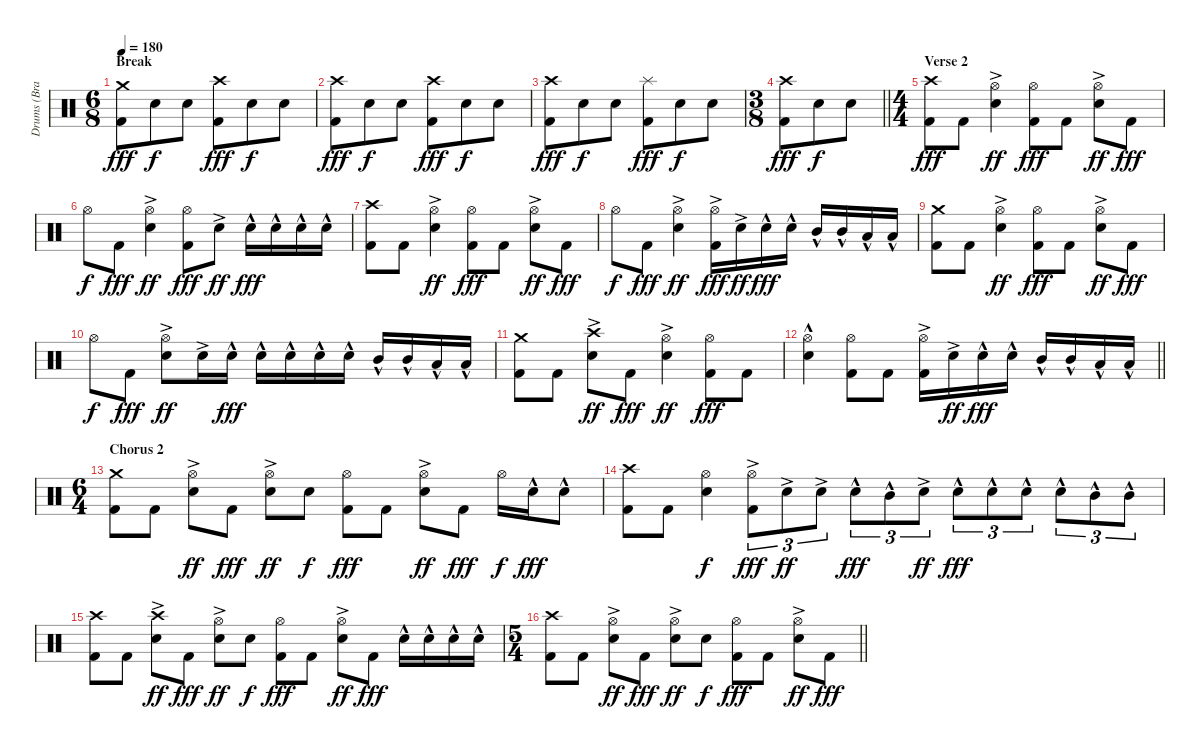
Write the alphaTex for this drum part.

\track ("Drums (Brann Dailor)" "Drums (Bra") {instrument percussion}
\staff {score}
\articulation defaults
\ts (6 8)
\section ("" "Break")
\tempo 180
\clef neutral
\ks c
("Crash medium (hit)" "Kick (hit) 2").8{dy fff} "Electric Snare (hit)".8{dy f} "Electric Snare (hit)".8 ("Crash high (hit)" "Kick (hit) 2").8{dy fff} "Electric Snare (hit)".8{dy f} "Electric Snare (hit)".8 |
("Crash high (hit)" "Kick (hit) 2").8{dy fff} "Electric Snare (hit)".8{dy f} "Electric Snare (hit)".8 ("Crash high (hit)" "Kick (hit) 2").8{dy fff} "Electric Snare (hit)".8{dy f} "Electric Snare (hit)".8 |
("Crash high (hit)" "Kick (hit) 2").8{dy fff} "Electric Snare (hit)".8{dy f} "Electric Snare (hit)".8 ("Splash (hit)" "Kick (hit) 2").8{dy fff} "Electric Snare (hit)".8{dy f} "Electric Snare (hit)".8 |
\ts (3 8)
\barLineRight lightlight
("Crash high (hit)" "Kick (hit) 2").8{dy fff} "Electric Snare (hit)".8{dy f} "Electric Snare (hit)".8 |
\ts (4 4)
\section ("" "Verse 2")
("Crash high (hit)" "Kick (hit) 2").8{dy fff} "Kick (hit) 2".8 ("Hi-Hat (open)" "Electric Snare (hit)"{ac}).4{dy ff} ("Hi-Hat (open)" "Kick (hit) 2").8{dy fff} "Kick (hit) 2".8 ("Hi-Hat (open)" "Electric Snare (hit)"{ac}).8{dy ff} "Kick (hit) 2".8{dy fff} |
"Hi-Hat (open)".8{dy f} "Kick (hit) 2".8{dy fff} ("Hi-Hat (open)" "Electric Snare (hit)"{ac}).4{dy ff} ("Hi-Hat (open)" "Kick (hit) 2").8{dy fff} "Electric Snare (hit)"{ac}.8{dy ff} "Electric Snare (hit)"{hac}.16{dy fff} "Electric Snare (hit)"{hac}.16 "Electric Snare (hit)"{hac}.16 "Electric Snare (hit)"{hac}.16 |
("Crash high (hit)" "Kick (hit) 2").8 "Kick (hit) 2".8 ("Hi-Hat (open)" "Electric Snare (hit)"{ac}).4{dy ff} ("Hi-Hat (open)" "Kick (hit) 2").8{dy fff} "Kick (hit) 2".8 ("Hi-Hat (open)" "Electric Snare (hit)"{ac}).8{dy ff} "Kick (hit) 2".8{dy fff} |
"Hi-Hat (open)".8{dy f} "Kick (hit) 2".8{dy fff} ("Hi-Hat (open)"{ac} "Electric Snare (hit)"{ac}).4{dy ff} ("Hi-Hat (open)"{ac} "Kick (hit) 2").16{dy fff} "Electric Snare (hit)"{ac}.16{dy ff} "Electric Snare (hit)"{hac}.16{dy fff} "Electric Snare (hit)"{hac}.16 "Mid Tom (hit)"{hac}.16 "Mid Tom (hit)"{hac}.16 "Low Tom (hit)"{hac}.16 "Low Tom (hit)"{hac}.16 |
("Crash medium (hit)" "Kick (hit) 2").8 "Kick (hit) 2".8 ("Hi-Hat (open)" "Electric Snare (hit)"{ac}).4{dy ff} ("Hi-Hat (open)" "Kick (hit) 2").8{dy fff} "Kick (hit) 2".8 ("Hi-Hat (open)" "Electric Snare (hit)"{ac}).8{dy ff} "Kick (hit) 2".8{dy fff} |
"Hi-Hat (open)".8{dy f} "Kick (hit) 2".8{dy fff} ("Hi-Hat (open)" "Electric Snare (hit)"{ac}).8{dy ff} "Electric Snare (hit)"{ac}.16 "Electric Snare (hit)"{hac}.16{dy fff} "Electric Snare (hit)"{hac}.16 "Electric Snare (hit)"{hac}.16 "Electric Snare (hit)"{hac}.16 "Electric Snare (hit)"{hac}.16 "Mid Tom (hit)"{hac}.16 "Mid Tom (hit)"{hac}.16 "Low Tom (hit)"{hac}.16 "Low Tom (hit)"{hac}.16 |
("Crash medium (hit)" "Kick (hit) 2").8 "Kick (hit) 2".8 ("Crash high (hit)" "Electric Snare (hit)"{ac}).8{dy ff} "Kick (hit) 2".8{dy fff} ("Hi-Hat (open)" "Electric Snare (hit)"{ac}).4{dy ff} ("Hi-Hat (open)" "Kick (hit) 2").8{dy fff} "Kick (hit) 2".8 |
\barLineRight lightlight
("Hi-Hat (open)" "Electric Snare (hit)"{hac}).4 ("Hi-Hat (open)" "Kick (hit) 2").8 "Kick (hit) 2".8 ("Hi-Hat (open)"{ac} "Kick (hit) 2").16 "Electric Snare (hit)"{ac}.16{dy ff} "Electric Snare (hit)"{hac}.16{dy fff} "Electric Snare (hit)"{hac}.16 "Mid Tom (hit)"{hac}.16 "Mid Tom (hit)"{hac}.16 "Low Tom (hit)"{hac}.16 "Low Tom (hit)"{hac}.16 |
\ts (6 4)
\section ("" "Chorus 2")
("Crash medium (hit)" "Kick (hit) 2").8 "Kick (hit) 2".8 ("Hi-Hat (open)" "Electric Snare (hit)"{ac}).8{dy ff} "Kick (hit) 2".8{dy fff} ("Hi-Hat (open)" "Electric Snare (hit)"{ac}).8{dy ff} "Electric Snare (hit)".8{dy f} ("Hi-Hat (open)" "Kick (hit) 2").8{dy fff} "Kick (hit) 2".8 ("Hi-Hat (open)" "Electric Snare (hit)"{ac}).8{dy ff} "Kick (hit) 2".8{dy fff} "Hi-Hat (open)".16{dy f} "Electric Snare (hit)"{hac}.16{dy fff} "Electric Snare (hit)"{hac}.8 |
("Crash high (hit)" "Kick (hit) 2").8 "Kick (hit) 2".8 ("Hi-Hat (open)" "Electric Snare (hit)").4{dy f} ("Hi-Hat (open)"{ac} "Kick (hit) 2").8{tu (3 2) dy fff} "Electric Snare (hit)"{ac}.8{tu (3 2) dy ff} "Electric Snare (hit)"{ac}.8{tu (3 2)} "Electric Snare (hit)"{hac}.8{tu (3 2) dy fff} "Mid Tom (hit)"{hac}.8{tu (3 2)} "Electric Snare (hit)"{ac}.8{tu (3 2) dy ff} "Electric Snare (hit)"{hac}.8{tu (3 2) dy fff} "Electric Snare (hit)"{hac}.8{tu (3 2)} "Electric Snare (hit)"{hac}.8{tu (3 2)} "Electric Snare (hit)"{hac}.8{tu (3 2)} "Mid Tom (hit)"{hac}.8{tu (3 2)} "Mid Tom (hit)"{hac}.8{tu (3 2)} |
("Crash high (hit)" "Kick (hit) 2").8 "Kick (hit) 2".8 ("Crash high (hit)" "Electric Snare (hit)"{ac}).8{dy ff} "Kick (hit) 2".8{dy fff} ("Hi-Hat (open)" "Electric Snare (hit)"{ac}).8{dy ff} "Electric Snare (hit)".8{dy f} ("Hi-Hat (open)" "Kick (hit) 2").8{dy fff} "Kick (hit) 2".8 ("Hi-Hat (open)" "Electric Snare (hit)"{ac}).8{dy ff} "Kick (hit) 2".8{dy fff} "Electric Snare (hit)"{hac}.16 "Electric Snare (hit)"{hac}.16 "Electric Snare (hit)"{hac}.16 "Electric Snare (hit)"{hac}.16 |
\ts (5 4)
\barLineRight lightlight
("Crash high (hit)" "Kick (hit) 2").8 "Kick (hit) 2".8 ("Hi-Hat (open)" "Electric Snare (hit)"{ac}).8{dy ff} "Kick (hit) 2".8{dy fff} ("Hi-Hat (open)" "Electric Snare (hit)"{ac}).8{dy ff} "Electric Snare (hit)".8{dy f} ("Hi-Hat (open)" "Kick (hit) 2").8{dy fff} "Kick (hit) 2".8 ("Hi-Hat (open)" "Electric Snare (hit)"{ac}).8{dy ff} "Kick (hit) 2".8{dy fff}
